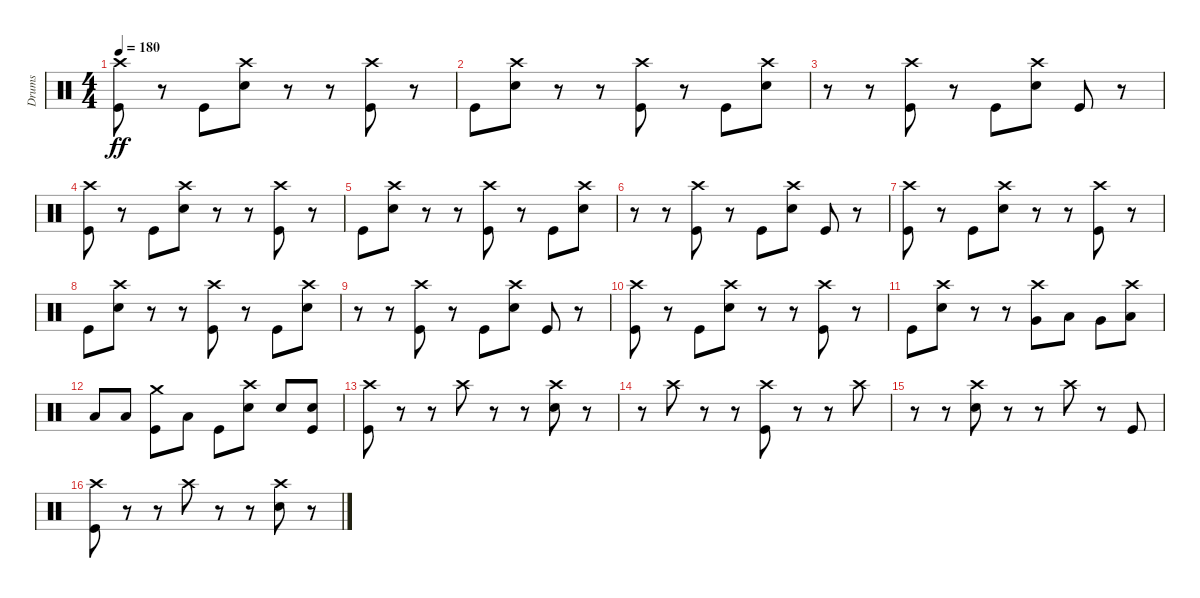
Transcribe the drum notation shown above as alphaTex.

\track ("Drums" "Drums") {instrument percussion}
\staff {score}
\articulation defaults
\ts (4 4)
\tempo 180
\clef neutral
\ks c
("Crash high (hit)" "Kick (hit)").8{dy ff} r.8 "Kick (hit)".8 ("Crash high (hit)" "Snare (hit) 2").8 r.8 r.8 ("Crash high (hit)" "Kick (hit)").8 r.8 |
"Kick (hit)".8 ("Crash high (hit)" "Snare (hit) 2").8 r.8 r.8 ("Crash high (hit)" "Kick (hit)").8 r.8 "Kick (hit)".8 ("Crash high (hit)" "Snare (hit) 2").8 |
r.8 r.8 ("Crash high (hit)" "Kick (hit)").8 r.8 "Kick (hit)".8 ("Crash high (hit)" "Snare (hit) 2").8 "Kick (hit)".8 r.8 |
("Crash high (hit)" "Kick (hit)").8 r.8 "Kick (hit)".8 ("Crash high (hit)" "Snare (hit) 2").8 r.8 r.8 ("Crash high (hit)" "Kick (hit)").8 r.8 |
"Kick (hit)".8 ("Crash high (hit)" "Snare (hit) 2").8 r.8 r.8 ("Crash high (hit)" "Kick (hit)").8 r.8 "Kick (hit)".8 ("Crash high (hit)" "Snare (hit) 2").8 |
r.8 r.8 ("Crash high (hit)" "Kick (hit)").8 r.8 "Kick (hit)".8 ("Crash high (hit)" "Snare (hit) 2").8 "Kick (hit)".8 r.8 |
("Crash high (hit)" "Kick (hit)").8 r.8 "Kick (hit)".8 ("Crash high (hit)" "Snare (hit) 2").8 r.8 r.8 ("Crash high (hit)" "Kick (hit)").8 r.8 |
"Kick (hit)".8 ("Crash high (hit)" "Snare (hit) 2").8 r.8 r.8 ("Crash high (hit)" "Kick (hit)").8 r.8 "Kick (hit)".8 ("Crash high (hit)" "Snare (hit) 2").8 |
r.8 r.8 ("Crash high (hit)" "Kick (hit)").8 r.8 "Kick (hit)".8 ("Crash high (hit)" "Snare (hit) 2").8 "Kick (hit)".8 r.8 |
("Crash high (hit)" "Kick (hit)").8 r.8 "Kick (hit)".8 ("Crash high (hit)" "Snare (hit) 2").8 r.8 r.8 ("Crash high (hit)" "Kick (hit)").8 r.8 |
"Kick (hit)".8 ("Crash high (hit)" "Snare (hit) 2").8 r.8 r.8 ("Crash high (hit)" "Very Low Tom (hit)").8 "Low Floor Tom (hit)".8 "Very Low Tom (hit)".8 ("Crash high (hit)" "Low Floor Tom (hit)").8 |
"Low Floor Tom (hit)".8 "Low Floor Tom (hit)".8 ("Crash medium (hit)" "Kick (hit)").8 "Low Floor Tom (hit)".8 "Kick (hit)".8 ("Crash high (hit)" "Snare (hit) 2").8 "Snare (hit) 2".8 ("Snare (hit) 2" "Kick (hit)").8 |
("Crash high (hit)" "Kick (hit)").8 r.8 r.8 "Crash high (hit)".8 r.8 r.8 ("Crash high (hit)" "Snare (hit) 2").8 r.8 |
r.8 "Crash high (hit)".8 r.8 r.8 ("Crash high (hit)" "Kick (hit)").8 r.8 r.8 "Crash high (hit)".8 |
r.8 r.8 ("Crash high (hit)" "Snare (hit) 2").8 r.8 r.8 "Crash high (hit)".8 r.8 "Kick (hit)".8 |
("Crash high (hit)" "Kick (hit)").8 r.8 r.8 "Crash high (hit)".8 r.8 r.8 ("Crash high (hit)" "Snare (hit) 2").8 r.8
